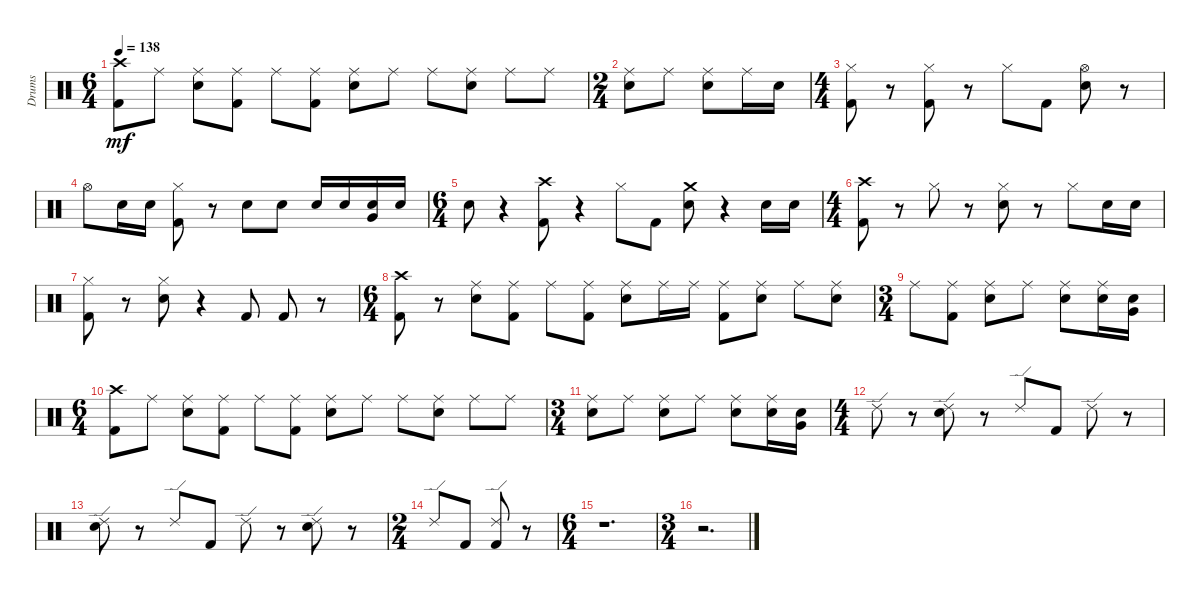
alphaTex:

\track ("Drums" "Drums") {instrument percussion}
\staff {score}
\articulation defaults
\ts (6 4)
\tempo 138
\clef neutral
\ks c
("Kick (hit) 2" "Crash high (hit)").8{dy mf} "Ride (middle)".8 ("Snare (hit) 2" "Ride (middle)").8 ("Kick (hit) 2" "Ride (middle)").8 "Ride (middle)".8 ("Kick (hit) 2" "Ride (middle)").8 ("Snare (hit) 2" "Ride (middle)").8 "Ride (middle)".8 "Ride (middle)".8 ("Snare (hit) 2" "Ride (middle)").8 "Ride (middle)".8 "Ride (middle)".8 |
\ts (2 4)
("Snare (hit) 2" "Ride (middle)").8 "Ride (middle)".8 ("Snare (hit) 2" "Ride (middle)").8 "Ride (middle)".16 "Snare (hit) 2".16 |
\ts (4 4)
("Kick (hit) 2" "Hi-Hat (closed)").8 r.8 ("Kick (hit) 2" "Hi-Hat (closed)").8 r.8 "Hi-Hat (closed)".8 "Kick (hit) 2".8 ("Snare (hit) 2" "Hi-Hat (open)").8 r.8 |
"Hi-Hat (open)".8 "Snare (hit) 2".16 "Snare (hit) 2".16 ("Kick (hit) 2" "Hi-Hat (closed)").8 r.8 "Snare (hit) 2".8 "Snare (hit) 2".8 "Snare (hit) 2".16 "Snare (hit) 2".16 ("Snare (hit) 2" "Very Low Tom (hit)").16 "Snare (hit) 2".16 |
\ts (6 4)
"Snare (hit) 2".8 r.4 ("Crash high (hit)" "Kick (hit) 2").8 r.4 "Hi-Hat (closed)".8 "Kick (hit) 2".8 ("Crash medium (hit)" "Snare (hit) 2").8 r.4 "Snare (hit) 2".16 "Snare (hit) 2".16 |
\ts (4 4)
("Kick (hit) 2" "Crash high (hit)").8 r.8 "Hi-Hat (closed)".8 r.8 ("Snare (hit) 2" "Hi-Hat (closed)").8 r.8 "Hi-Hat (closed)".8 "Snare (hit) 2".16 "Snare (hit) 2".16 |
("Kick (hit) 2" "Hi-Hat (closed)").8 r.8 ("Snare (hit) 2" "Hi-Hat (closed)").8 r.4 "Kick (hit) 2".8 "Kick (hit) 2".8 r.8 |
\ts (6 4)
("Kick (hit) 2" "Crash high (hit)").8 r.8 ("Snare (hit) 2" "Ride (middle)").8 ("Kick (hit) 2" "Ride (middle)").8 "Ride (middle)".8 ("Kick (hit) 2" "Ride (middle)").8 ("Snare (hit) 2" "Ride (middle)").8 "Ride (middle)".16 "Ride (middle)".16 ("Kick (hit) 2" "Ride (middle)").8 ("Snare (hit) 2" "Ride (middle)").8 "Ride (middle)".8 ("Snare (hit) 2" "Ride (middle)").8 |
\ts (3 4)
"Ride (middle)".8 ("Kick (hit) 2" "Ride (middle)").8 ("Snare (hit) 2" "Ride (middle)").8 "Ride (middle)".8 ("Snare (hit) 2" "Ride (middle)").8 ("Snare (hit) 2" "Ride (middle)").16 ("Snare (hit) 2" "Very Low Tom (hit)").16 |
\ts (6 4)
("Kick (hit) 2" "Crash high (hit)").8 "Ride (middle)".8 ("Snare (hit) 2" "Ride (middle)").8 ("Kick (hit) 2" "Ride (middle)").8 "Ride (middle)".8 ("Kick (hit) 2" "Ride (middle)").8 ("Snare (hit) 2" "Ride (middle)").8 "Ride (middle)".8 "Ride (middle)".8 ("Snare (hit) 2" "Ride (middle)").8 "Ride (middle)".8 "Ride (middle)".8 |
\ts (3 4)
("Snare (hit) 2" "Ride (middle)").8 "Ride (middle)".8 ("Snare (hit) 2" "Ride (middle)").8 "Ride (middle)".8 ("Snare (hit) 2" "Ride (middle)").8 ("Snare (hit) 2" "Ride (middle)").16 ("Snare (hit) 2" "Very Low Tom (hit)").16 |
\ts (4 4)
"Ride (edge) 2".8 r.8 ("Electric Snare (hit)" "Ride (edge) 2").8 r.8 "Ride (edge) 2".8 "Kick (hit) 2".8 "Ride (edge) 2".8 r.8 |
("Electric Snare (hit)" "Ride (edge) 2").8 r.8 "Ride (edge) 2".8 "Kick (hit) 2".8 "Ride (edge) 2".8 r.8 ("Electric Snare (hit)" "Ride (edge) 2").8 r.8 |
\ts (2 4)
"Ride (edge) 2".8 "Kick (hit) 2".8 ("Kick (hit) 2" "Ride (edge) 2").8 r.8 |
\ts (6 4)
r.1{d} |
\ts (3 4)
r.2{d}
